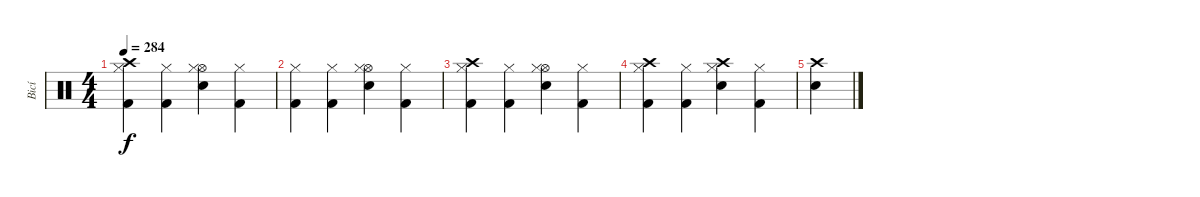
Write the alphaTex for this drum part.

\track ("Bicí" "Bicí") {instrument percussion}
\staff {score}
\articulation defaults
\ts (4 4)
\tempo 284
\clef neutral
\ks c
("Crash high (hit)" "Hi-Hat (closed)" "Kick (hit) 2").4{dy f} ("Hi-Hat (closed)" "Kick (hit) 2").4 ("Hi-Hat (open)" "Hi-Hat (closed)" "Electric Snare (hit)").4 ("Hi-Hat (closed)" "Kick (hit) 2").4 |
("Hi-Hat (closed)" "Kick (hit) 2").4 ("Hi-Hat (closed)" "Kick (hit) 2").4 ("Hi-Hat (open)" "Hi-Hat (closed)" "Electric Snare (hit)").4 ("Hi-Hat (closed)" "Kick (hit) 2").4 |
("Crash high (hit)" "Hi-Hat (closed)" "Kick (hit) 2").4 ("Hi-Hat (closed)" "Kick (hit) 2").4 ("Hi-Hat (open)" "Hi-Hat (closed)" "Electric Snare (hit)").4 ("Hi-Hat (closed)" "Kick (hit) 2").4 |
("Crash high (hit)" "Hi-Hat (closed)" "Kick (hit) 2").4 ("Hi-Hat (closed)" "Kick (hit) 2").4 ("Crash high (hit)" "Hi-Hat (closed)" "Electric Snare (hit)").4 ("Hi-Hat (closed)" "Kick (hit) 2").4 |
("Crash high (hit)" "Electric Snare (hit)").4
